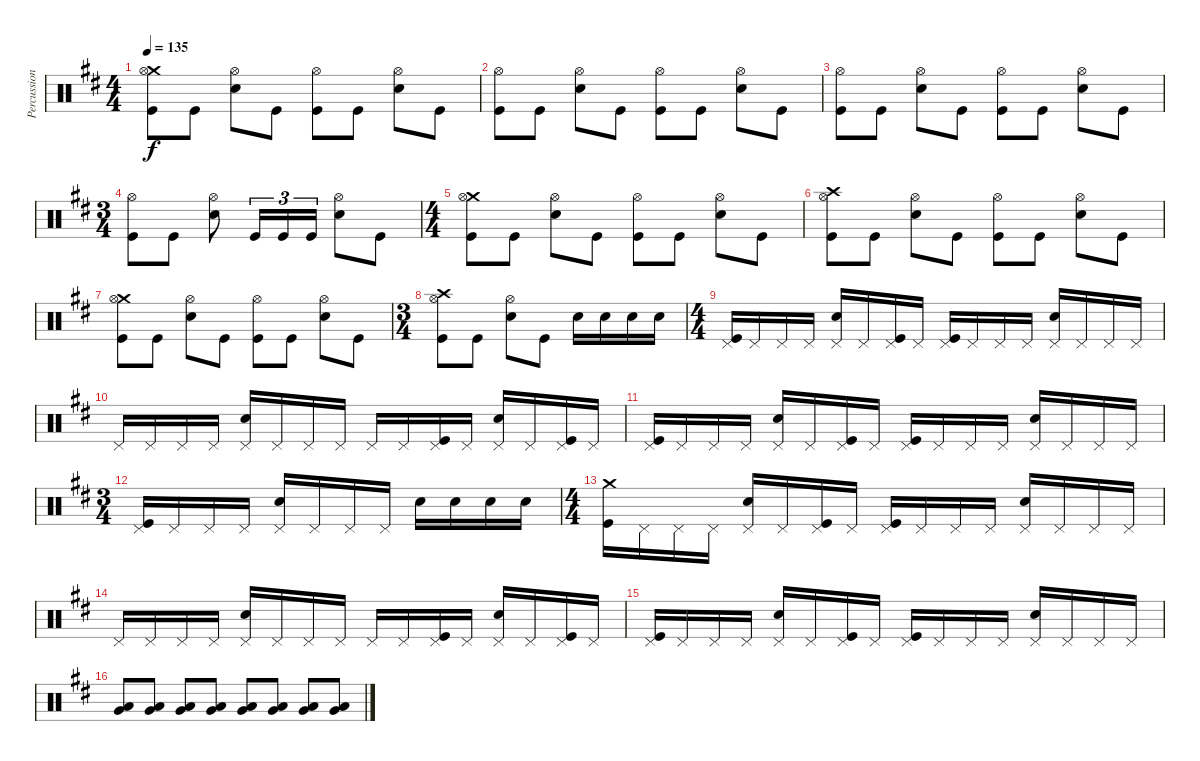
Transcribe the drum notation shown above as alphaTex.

\track ("Percussion" "Percussion") {instrument percussion}
\staff {score}
\articulation defaults
\ts (4 4)
\tempo 135
\clef neutral
\ks d
("Crash medium (hit)" "Hi-Hat (open)" "Kick (hit)").8{dy f} "Kick (hit)".8 ("Hi-Hat (open)" "Electric Snare (hit)").8 "Kick (hit)".8 ("Hi-Hat (open)" "Kick (hit)").8 "Kick (hit)".8 ("Hi-Hat (open)" "Electric Snare (hit)").8 "Kick (hit)".8 |
("Hi-Hat (open)" "Kick (hit)").8 "Kick (hit)".8 ("Hi-Hat (open)" "Electric Snare (hit)").8 "Kick (hit)".8 ("Hi-Hat (open)" "Kick (hit)").8 "Kick (hit)".8 ("Hi-Hat (open)" "Electric Snare (hit)").8 "Kick (hit)".8 |
("Hi-Hat (open)" "Kick (hit)").8 "Kick (hit)".8 ("Hi-Hat (open)" "Electric Snare (hit)").8 "Kick (hit)".8 ("Hi-Hat (open)" "Kick (hit)").8 "Kick (hit)".8 ("Hi-Hat (open)" "Electric Snare (hit)").8 "Kick (hit)".8 |
\ts (3 4)
("Hi-Hat (open)" "Kick (hit)").8 "Kick (hit)".8 ("Hi-Hat (open)" "Electric Snare (hit)").8 "Kick (hit)".16{tu (3 2)} "Kick (hit)".16{tu (3 2)} "Kick (hit)".16{tu (3 2)} ("Hi-Hat (open)" "Electric Snare (hit)").8 "Kick (hit)".8 |
\ts (4 4)
("Crash medium (hit)" "Hi-Hat (open)" "Kick (hit)").8 "Kick (hit)".8 ("Hi-Hat (open)" "Electric Snare (hit)").8 "Kick (hit)".8 ("Hi-Hat (open)" "Kick (hit)").8 "Kick (hit)".8 ("Hi-Hat (open)" "Electric Snare (hit)").8 "Kick (hit)".8 |
("Crash high (hit)" "Hi-Hat (open)" "Kick (hit)").8 "Kick (hit)".8 ("Hi-Hat (open)" "Electric Snare (hit)").8 "Kick (hit)".8 ("Hi-Hat (open)" "Kick (hit)").8 "Kick (hit)".8 ("Hi-Hat (open)" "Electric Snare (hit)").8 "Kick (hit)".8 |
("Crash medium (hit)" "Hi-Hat (open)" "Kick (hit)").8 "Kick (hit)".8 ("Hi-Hat (open)" "Electric Snare (hit)").8 "Kick (hit)".8 ("Hi-Hat (open)" "Kick (hit)").8 "Kick (hit)".8 ("Hi-Hat (open)" "Electric Snare (hit)").8 "Kick (hit)".8 |
\ts (3 4)
("Crash high (hit)" "Hi-Hat (open)" "Kick (hit)").8 "Kick (hit)".8 ("Hi-Hat (open)" "Electric Snare (hit)").8 "Kick (hit)".8 "Electric Snare (hit)".16 "Electric Snare (hit)".16 "Electric Snare (hit)".16 "Electric Snare (hit)".16 |
\ts (4 4)
("Pedal Hi-Hat (hit)" "Kick (hit)").16 "Pedal Hi-Hat (hit)".16 "Pedal Hi-Hat (hit)".16 "Pedal Hi-Hat (hit)".16 ("Pedal Hi-Hat (hit)" "Electric Snare (hit)").16 "Pedal Hi-Hat (hit)".16 ("Pedal Hi-Hat (hit)" "Kick (hit)").16 "Pedal Hi-Hat (hit)".16 ("Pedal Hi-Hat (hit)" "Kick (hit)").16 "Pedal Hi-Hat (hit)".16 "Pedal Hi-Hat (hit)".16 "Pedal Hi-Hat (hit)".16 ("Pedal Hi-Hat (hit)" "Electric Snare (hit)").16 "Pedal Hi-Hat (hit)".16 "Pedal Hi-Hat (hit)".16 "Pedal Hi-Hat (hit)".16 |
"Pedal Hi-Hat (hit)".16 "Pedal Hi-Hat (hit)".16 "Pedal Hi-Hat (hit)".16 "Pedal Hi-Hat (hit)".16 ("Pedal Hi-Hat (hit)" "Electric Snare (hit)").16 "Pedal Hi-Hat (hit)".16 "Pedal Hi-Hat (hit)".16 "Pedal Hi-Hat (hit)".16 "Pedal Hi-Hat (hit)".16 "Pedal Hi-Hat (hit)".16 ("Pedal Hi-Hat (hit)" "Kick (hit)").16 "Pedal Hi-Hat (hit)".16 ("Pedal Hi-Hat (hit)" "Electric Snare (hit)").16 "Pedal Hi-Hat (hit)".16 ("Pedal Hi-Hat (hit)" "Kick (hit)").16 "Pedal Hi-Hat (hit)".16 |
("Pedal Hi-Hat (hit)" "Kick (hit)").16 "Pedal Hi-Hat (hit)".16 "Pedal Hi-Hat (hit)".16 "Pedal Hi-Hat (hit)".16 ("Pedal Hi-Hat (hit)" "Electric Snare (hit)").16 "Pedal Hi-Hat (hit)".16 ("Pedal Hi-Hat (hit)" "Kick (hit)").16 "Pedal Hi-Hat (hit)".16 ("Pedal Hi-Hat (hit)" "Kick (hit)").16 "Pedal Hi-Hat (hit)".16 "Pedal Hi-Hat (hit)".16 "Pedal Hi-Hat (hit)".16 ("Pedal Hi-Hat (hit)" "Electric Snare (hit)").16 "Pedal Hi-Hat (hit)".16 "Pedal Hi-Hat (hit)".16 "Pedal Hi-Hat (hit)".16 |
\ts (3 4)
("Pedal Hi-Hat (hit)" "Kick (hit)").16 "Pedal Hi-Hat (hit)".16 "Pedal Hi-Hat (hit)".16 "Pedal Hi-Hat (hit)".16 ("Pedal Hi-Hat (hit)" "Electric Snare (hit)").16 "Pedal Hi-Hat (hit)".16 "Pedal Hi-Hat (hit)".16 "Pedal Hi-Hat (hit)".16 "Electric Snare (hit)".16 "Electric Snare (hit)".16 "Electric Snare (hit)".16 "Electric Snare (hit)".16 |
\ts (4 4)
("Crash medium (hit)" "Kick (hit)").16 "Pedal Hi-Hat (hit)".16 "Pedal Hi-Hat (hit)".16 "Pedal Hi-Hat (hit)".16 ("Pedal Hi-Hat (hit)" "Electric Snare (hit)").16 "Pedal Hi-Hat (hit)".16 ("Pedal Hi-Hat (hit)" "Kick (hit)").16 "Pedal Hi-Hat (hit)".16 ("Pedal Hi-Hat (hit)" "Kick (hit)").16 "Pedal Hi-Hat (hit)".16 "Pedal Hi-Hat (hit)".16 "Pedal Hi-Hat (hit)".16 ("Pedal Hi-Hat (hit)" "Electric Snare (hit)").16 "Pedal Hi-Hat (hit)".16 "Pedal Hi-Hat (hit)".16 "Pedal Hi-Hat (hit)".16 |
"Pedal Hi-Hat (hit)".16 "Pedal Hi-Hat (hit)".16 "Pedal Hi-Hat (hit)".16 "Pedal Hi-Hat (hit)".16 ("Pedal Hi-Hat (hit)" "Electric Snare (hit)").16 "Pedal Hi-Hat (hit)".16 "Pedal Hi-Hat (hit)".16 "Pedal Hi-Hat (hit)".16 "Pedal Hi-Hat (hit)".16 "Pedal Hi-Hat (hit)".16 ("Pedal Hi-Hat (hit)" "Kick (hit)").16 "Pedal Hi-Hat (hit)".16 ("Pedal Hi-Hat (hit)" "Electric Snare (hit)").16 "Pedal Hi-Hat (hit)".16 ("Pedal Hi-Hat (hit)" "Kick (hit)").16 "Pedal Hi-Hat (hit)".16 |
("Pedal Hi-Hat (hit)" "Kick (hit)").16 "Pedal Hi-Hat (hit)".16 "Pedal Hi-Hat (hit)".16 "Pedal Hi-Hat (hit)".16 ("Pedal Hi-Hat (hit)" "Electric Snare (hit)").16 "Pedal Hi-Hat (hit)".16 ("Pedal Hi-Hat (hit)" "Kick (hit)").16 "Pedal Hi-Hat (hit)".16 ("Pedal Hi-Hat (hit)" "Kick (hit)").16 "Pedal Hi-Hat (hit)".16 "Pedal Hi-Hat (hit)".16 "Pedal Hi-Hat (hit)".16 ("Pedal Hi-Hat (hit)" "Electric Snare (hit)").16 "Pedal Hi-Hat (hit)".16 "Pedal Hi-Hat (hit)".16 "Pedal Hi-Hat (hit)".16 |
("Low Floor Tom (hit)" "Very Low Tom (hit)").8 ("Low Floor Tom (hit)" "Very Low Tom (hit)").8 ("Low Floor Tom (hit)" "Very Low Tom (hit)").8 ("Low Floor Tom (hit)" "Very Low Tom (hit)").8 ("Low Floor Tom (hit)" "Very Low Tom (hit)").8 ("Low Floor Tom (hit)" "Very Low Tom (hit)").8 ("Low Floor Tom (hit)" "Very Low Tom (hit)").8 ("Low Floor Tom (hit)" "Very Low Tom (hit)").8
